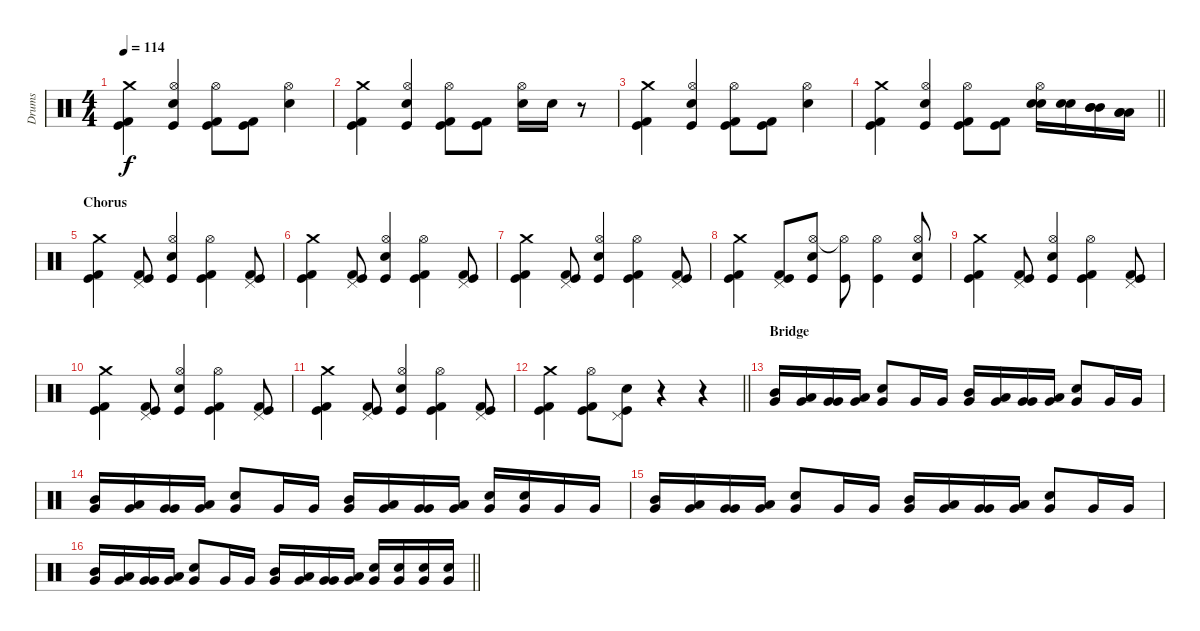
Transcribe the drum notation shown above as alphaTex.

\track ("Drums" "Drums") {instrument percussion}
\staff {score}
\articulation defaults
\ts (4 4)
\tempo 114
\clef neutral
\ks c
("Crash medium (hit)" "Kick (hit) 2" "Kick (hit)").4{dy f} ("Hi-Hat (open)" "Snare (hit) 2" "Kick (hit)").4 ("Hi-Hat (open)" "Kick (hit) 2" "Kick (hit)").8 ("Kick (hit) 2" "Kick (hit)").8 ("Hi-Hat (open)" "Snare (hit) 2").4 |
("Crash medium (hit)" "Kick (hit) 2" "Kick (hit)").4 ("Hi-Hat (open)" "Snare (hit) 2" "Kick (hit)").4 ("Hi-Hat (open)" "Kick (hit) 2" "Kick (hit)").8 ("Kick (hit) 2" "Kick (hit)").8 ("Hi-Hat (open)" "Snare (hit) 2").16 "Snare (hit) 2".16 r.8 |
("Crash medium (hit)" "Kick (hit) 2" "Kick (hit)").4 ("Hi-Hat (open)" "Snare (hit) 2" "Kick (hit)").4 ("Hi-Hat (open)" "Kick (hit) 2" "Kick (hit)").8 ("Kick (hit) 2" "Kick (hit)").8 ("Hi-Hat (open)" "Snare (hit) 2").4 |
\barLineRight lightlight
("Crash medium (hit)" "Kick (hit) 2" "Kick (hit)").4 ("Hi-Hat (open)" "Snare (hit) 2" "Kick (hit)").4 ("Hi-Hat (open)" "Kick (hit) 2" "Kick (hit)").8 ("Kick (hit) 2" "Kick (hit)").8 ("Hi-Hat (open)" "Snare (hit) 2" "Snare (hit) 2").16 ("Snare (hit) 2" "Snare (hit) 2").16 ("Mid Tom (hit)" "Mid Tom (hit)" "Mid Tom (hit)").16 ("Low Tom (hit)" "Low Tom (hit)" "Low Tom (hit)").16 |
\section ("" "Chorus")
("Crash medium (hit)" "Kick (hit) 2" "Kick (hit)").4 ("Pedal Hi-Hat (hit)" "Kick (hit) 2" "Kick (hit)").8 ("Hi-Hat (open)" "Snare (hit) 2" "Kick (hit)").4 ("Hi-Hat (open)" "Kick (hit) 2" "Kick (hit)").4 ("Pedal Hi-Hat (hit)" "Kick (hit) 2" "Kick (hit)").8 |
("Crash medium (hit)" "Kick (hit) 2" "Kick (hit)").4 ("Pedal Hi-Hat (hit)" "Kick (hit) 2" "Kick (hit)").8 ("Hi-Hat (open)" "Snare (hit) 2" "Kick (hit)").4 ("Hi-Hat (open)" "Kick (hit) 2" "Kick (hit)").4 ("Pedal Hi-Hat (hit)" "Kick (hit) 2" "Kick (hit)").8 |
("Crash medium (hit)" "Kick (hit) 2" "Kick (hit)").4 ("Pedal Hi-Hat (hit)" "Kick (hit) 2" "Kick (hit)").8 ("Hi-Hat (open)" "Snare (hit) 2" "Kick (hit)").4 ("Hi-Hat (open)" "Kick (hit) 2" "Kick (hit)").4 ("Pedal Hi-Hat (hit)" "Kick (hit) 2" "Kick (hit)").8 |
("Crash medium (hit)" "Kick (hit) 2" "Kick (hit)").4 ("Pedal Hi-Hat (hit)" "Kick (hit) 2" "Kick (hit)").8 ("Hi-Hat (open)" "Snare (hit) 2" "Kick (hit)").8 ("Hi-Hat (open)"{t} "Kick (hit)").8 ("Hi-Hat (open)" "Kick (hit)").4 ("Hi-Hat (open)" "Snare (hit) 2" "Kick (hit)").8 |
("Crash medium (hit)" "Kick (hit) 2" "Kick (hit)").4 ("Pedal Hi-Hat (hit)" "Kick (hit) 2" "Kick (hit)").8 ("Hi-Hat (open)" "Snare (hit) 2" "Kick (hit)").4 ("Hi-Hat (open)" "Kick (hit) 2" "Kick (hit)").4 ("Pedal Hi-Hat (hit)" "Kick (hit) 2" "Kick (hit)").8 |
("Crash medium (hit)" "Kick (hit) 2" "Kick (hit)").4 ("Pedal Hi-Hat (hit)" "Kick (hit) 2" "Kick (hit)").8 ("Hi-Hat (open)" "Snare (hit) 2" "Kick (hit)").4 ("Hi-Hat (open)" "Kick (hit) 2" "Kick (hit)").4 ("Pedal Hi-Hat (hit)" "Kick (hit) 2" "Kick (hit)").8 |
("Crash medium (hit)" "Kick (hit) 2" "Kick (hit)").4 ("Pedal Hi-Hat (hit)" "Kick (hit) 2" "Kick (hit)").8 ("Hi-Hat (open)" "Snare (hit) 2" "Kick (hit)").4 ("Hi-Hat (open)" "Kick (hit) 2" "Kick (hit)").4 ("Pedal Hi-Hat (hit)" "Kick (hit) 2" "Kick (hit)").8 |
\barLineRight lightlight
("Crash medium (hit)" "Kick (hit) 2" "Kick (hit)").4 ("Hi-Hat (open)" "Kick (hit) 2" "Kick (hit)").8 ("Pedal Hi-Hat (hit)" "Snare (hit) 2" "Kick (hit)").8 r.4 r.4 |
\section ("" "Bridge")
("Mid Tom (hit)" "Very Low Tom (hit)").16 ("Low Tom (hit)" "Very Low Tom (hit)").16 ("Very Low Tom (hit)" "Very Low Tom (hit)").16 ("Low Tom (hit)" "Very Low Tom (hit)").16 ("Snare (hit) 2" "Very Low Tom (hit)").8 "Very Low Tom (hit)".16 "Very Low Tom (hit)".16 ("Mid Tom (hit)" "Very Low Tom (hit)").16 ("Low Tom (hit)" "Very Low Tom (hit)").16 ("Very Low Tom (hit)" "Very Low Tom (hit)").16 ("Low Tom (hit)" "Very Low Tom (hit)").16 ("Snare (hit) 2" "Very Low Tom (hit)").8 "Very Low Tom (hit)".16 "Very Low Tom (hit)".16 |
("Mid Tom (hit)" "Very Low Tom (hit)").16 ("Low Tom (hit)" "Very Low Tom (hit)").16 ("Very Low Tom (hit)" "Very Low Tom (hit)").16 ("Low Tom (hit)" "Very Low Tom (hit)").16 ("Snare (hit) 2" "Very Low Tom (hit)").8 "Very Low Tom (hit)".16 "Very Low Tom (hit)".16 ("Mid Tom (hit)" "Very Low Tom (hit)").16 ("Low Tom (hit)" "Very Low Tom (hit)").16 ("Very Low Tom (hit)" "Very Low Tom (hit)").16 ("Low Tom (hit)" "Very Low Tom (hit)").16 ("Snare (hit) 2" "Very Low Tom (hit)").16 ("Snare (hit) 2" "Very Low Tom (hit)").16 "Very Low Tom (hit)".16 "Very Low Tom (hit)".16 |
("Mid Tom (hit)" "Very Low Tom (hit)").16 ("Low Tom (hit)" "Very Low Tom (hit)").16 ("Very Low Tom (hit)" "Very Low Tom (hit)").16 ("Low Tom (hit)" "Very Low Tom (hit)").16 ("Snare (hit) 2" "Very Low Tom (hit)").8 "Very Low Tom (hit)".16 "Very Low Tom (hit)".16 ("Mid Tom (hit)" "Very Low Tom (hit)").16 ("Low Tom (hit)" "Very Low Tom (hit)").16 ("Very Low Tom (hit)" "Very Low Tom (hit)").16 ("Low Tom (hit)" "Very Low Tom (hit)").16 ("Snare (hit) 2" "Very Low Tom (hit)").8 "Very Low Tom (hit)".16 "Very Low Tom (hit)".16 |
\barLineRight lightlight
("Mid Tom (hit)" "Very Low Tom (hit)").16 ("Low Tom (hit)" "Very Low Tom (hit)").16 ("Very Low Tom (hit)" "Very Low Tom (hit)").16 ("Low Tom (hit)" "Very Low Tom (hit)").16 ("Snare (hit) 2" "Very Low Tom (hit)").8 "Very Low Tom (hit)".16 "Very Low Tom (hit)".16 ("Mid Tom (hit)" "Very Low Tom (hit)").16 ("Low Tom (hit)" "Very Low Tom (hit)").16 ("Very Low Tom (hit)" "Very Low Tom (hit)").16 ("Low Tom (hit)" "Very Low Tom (hit)").16 ("Snare (hit) 2" "Very Low Tom (hit)").16 ("Snare (hit) 2" "Very Low Tom (hit)").16 ("Snare (hit) 2" "Very Low Tom (hit)").16 ("Snare (hit) 2" "Very Low Tom (hit)").16
